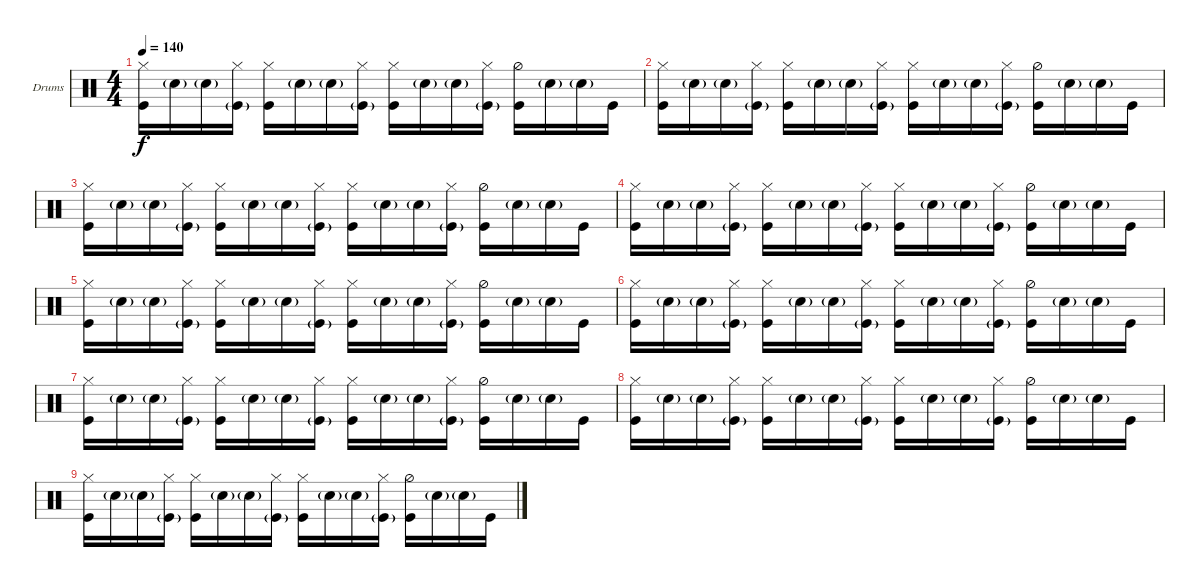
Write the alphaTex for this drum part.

\defaultSystemsLayout 4
\bracketExtendMode nobrackets
\firstSystemTrackNameOrientation horizontal
\otherSystemsTrackNameOrientation horizontal
\track ("Nazar" "Drums") {instrument percussion}
\staff {score}
\articulation defaults
\ts (4 4)
\tempo 140
\clef neutral
\ks c
("Hi-Hat (closed)" "Kick (hit)").16{dy f} "Snare (hit) 2"{g}.16 "Snare (hit) 2"{g}.16 ("Kick (hit)"{g} "Hi-Hat (closed)").16 ("Kick (hit)" "Hi-Hat (closed)").16 "Snare (hit) 2"{g}.16 "Snare (hit) 2"{g}.16 ("Kick (hit)"{g} "Hi-Hat (closed)").16 ("Kick (hit)" "Hi-Hat (closed)").16 "Snare (hit) 2"{g}.16 "Snare (hit) 2"{g}.16 ("Kick (hit)"{g} "Hi-Hat (closed)").16 ("Kick (hit)" "Hi-Hat (half)").16 "Snare (hit) 2"{g}.16 "Snare (hit) 2"{g}.16 "Kick (hit)".16 |
("Hi-Hat (closed)" "Kick (hit)").16 "Snare (hit) 2"{g}.16 "Snare (hit) 2"{g}.16 ("Kick (hit)"{g} "Hi-Hat (closed)").16 ("Kick (hit)" "Hi-Hat (closed)").16 "Snare (hit) 2"{g}.16 "Snare (hit) 2"{g}.16 ("Kick (hit)"{g} "Hi-Hat (closed)").16 ("Kick (hit)" "Hi-Hat (closed)").16 "Snare (hit) 2"{g}.16 "Snare (hit) 2"{g}.16 ("Kick (hit)"{g} "Hi-Hat (closed)").16 ("Kick (hit)" "Hi-Hat (half)").16 "Snare (hit) 2"{g}.16 "Snare (hit) 2"{g}.16 "Kick (hit)".16 |
("Hi-Hat (closed)" "Kick (hit)").16 "Snare (hit) 2"{g}.16 "Snare (hit) 2"{g}.16 ("Kick (hit)"{g} "Hi-Hat (closed)").16 ("Kick (hit)" "Hi-Hat (closed)").16 "Snare (hit) 2"{g}.16 "Snare (hit) 2"{g}.16 ("Kick (hit)"{g} "Hi-Hat (closed)").16 ("Kick (hit)" "Hi-Hat (closed)").16 "Snare (hit) 2"{g}.16 "Snare (hit) 2"{g}.16 ("Kick (hit)"{g} "Hi-Hat (closed)").16 ("Kick (hit)" "Hi-Hat (half)").16 "Snare (hit) 2"{g}.16 "Snare (hit) 2"{g}.16 "Kick (hit)".16 |
("Hi-Hat (closed)" "Kick (hit)").16 "Snare (hit) 2"{g}.16 "Snare (hit) 2"{g}.16 ("Kick (hit)"{g} "Hi-Hat (closed)").16 ("Kick (hit)" "Hi-Hat (closed)").16 "Snare (hit) 2"{g}.16 "Snare (hit) 2"{g}.16 ("Kick (hit)"{g} "Hi-Hat (closed)").16 ("Kick (hit)" "Hi-Hat (closed)").16 "Snare (hit) 2"{g}.16 "Snare (hit) 2"{g}.16 ("Kick (hit)"{g} "Hi-Hat (closed)").16 ("Kick (hit)" "Hi-Hat (half)").16 "Snare (hit) 2"{g}.16 "Snare (hit) 2"{g}.16 "Kick (hit)".16 |
("Hi-Hat (closed)" "Kick (hit)").16 "Snare (hit) 2"{g}.16 "Snare (hit) 2"{g}.16 ("Kick (hit)"{g} "Hi-Hat (closed)").16 ("Kick (hit)" "Hi-Hat (closed)").16 "Snare (hit) 2"{g}.16 "Snare (hit) 2"{g}.16 ("Kick (hit)"{g} "Hi-Hat (closed)").16 ("Kick (hit)" "Hi-Hat (closed)").16 "Snare (hit) 2"{g}.16 "Snare (hit) 2"{g}.16 ("Kick (hit)"{g} "Hi-Hat (closed)").16 ("Kick (hit)" "Hi-Hat (half)").16 "Snare (hit) 2"{g}.16 "Snare (hit) 2"{g}.16 "Kick (hit)".16 |
("Hi-Hat (closed)" "Kick (hit)").16 "Snare (hit) 2"{g}.16 "Snare (hit) 2"{g}.16 ("Kick (hit)"{g} "Hi-Hat (closed)").16 ("Kick (hit)" "Hi-Hat (closed)").16 "Snare (hit) 2"{g}.16 "Snare (hit) 2"{g}.16 ("Kick (hit)"{g} "Hi-Hat (closed)").16 ("Kick (hit)" "Hi-Hat (closed)").16 "Snare (hit) 2"{g}.16 "Snare (hit) 2"{g}.16 ("Kick (hit)"{g} "Hi-Hat (closed)").16 ("Kick (hit)" "Hi-Hat (half)").16 "Snare (hit) 2"{g}.16 "Snare (hit) 2"{g}.16 "Kick (hit)".16 |
("Hi-Hat (closed)" "Kick (hit)").16 "Snare (hit) 2"{g}.16 "Snare (hit) 2"{g}.16 ("Kick (hit)"{g} "Hi-Hat (closed)").16 ("Kick (hit)" "Hi-Hat (closed)").16 "Snare (hit) 2"{g}.16 "Snare (hit) 2"{g}.16 ("Kick (hit)"{g} "Hi-Hat (closed)").16 ("Kick (hit)" "Hi-Hat (closed)").16 "Snare (hit) 2"{g}.16 "Snare (hit) 2"{g}.16 ("Kick (hit)"{g} "Hi-Hat (closed)").16 ("Kick (hit)" "Hi-Hat (half)").16 "Snare (hit) 2"{g}.16 "Snare (hit) 2"{g}.16 "Kick (hit)".16 |
("Hi-Hat (closed)" "Kick (hit)").16 "Snare (hit) 2"{g}.16 "Snare (hit) 2"{g}.16 ("Kick (hit)"{g} "Hi-Hat (closed)").16 ("Kick (hit)" "Hi-Hat (closed)").16 "Snare (hit) 2"{g}.16 "Snare (hit) 2"{g}.16 ("Kick (hit)"{g} "Hi-Hat (closed)").16 ("Kick (hit)" "Hi-Hat (closed)").16 "Snare (hit) 2"{g}.16 "Snare (hit) 2"{g}.16 ("Kick (hit)"{g} "Hi-Hat (closed)").16 ("Kick (hit)" "Hi-Hat (half)").16 "Snare (hit) 2"{g}.16 "Snare (hit) 2"{g}.16 "Kick (hit)".16 |
("Hi-Hat (closed)" "Kick (hit)").16 "Snare (hit) 2"{g}.16 "Snare (hit) 2"{g}.16 ("Kick (hit)"{g} "Hi-Hat (closed)").16 ("Kick (hit)" "Hi-Hat (closed)").16 "Snare (hit) 2"{g}.16 "Snare (hit) 2"{g}.16 ("Kick (hit)"{g} "Hi-Hat (closed)").16 ("Kick (hit)" "Hi-Hat (closed)").16 "Snare (hit) 2"{g}.16 "Snare (hit) 2"{g}.16 ("Kick (hit)"{g} "Hi-Hat (closed)").16 ("Kick (hit)" "Hi-Hat (half)").16 "Snare (hit) 2"{g}.16 "Snare (hit) 2"{g}.16 "Kick (hit)".16
